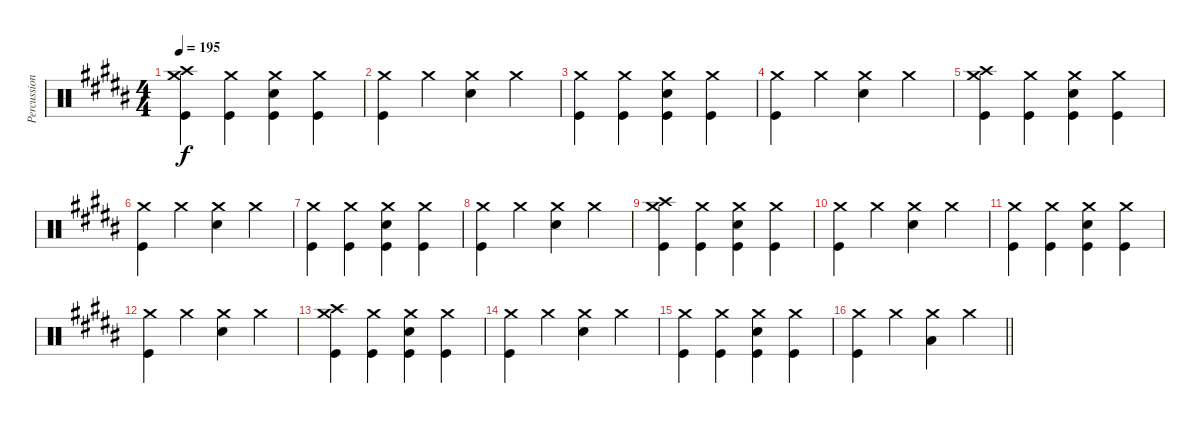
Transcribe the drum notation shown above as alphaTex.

\track ("Percussion" "Percussion") {instrument percussion}
\staff {score}
\articulation defaults
\ts (4 4)
\tempo 195
\clef neutral
\ks b
("Crash high (hit)" "Crash medium (hit)" "Kick (hit)").4{dy f} ("Crash medium (hit)" "Kick (hit)").4 ("Crash medium (hit)" "Electric Snare (hit)" "Kick (hit)").4 ("Crash medium (hit)" "Kick (hit)").4 |
("Crash medium (hit)" "Kick (hit)").4 "Crash medium (hit)".4 ("Crash medium (hit)" "Electric Snare (hit)").4 "Crash medium (hit)".4 |
("Crash medium (hit)" "Kick (hit)").4 ("Crash medium (hit)" "Kick (hit)").4 ("Crash medium (hit)" "Electric Snare (hit)" "Kick (hit)").4 ("Crash medium (hit)" "Kick (hit)").4 |
("Crash medium (hit)" "Kick (hit)").4 "Crash medium (hit)".4 ("Crash medium (hit)" "Electric Snare (hit)").4 "Crash medium (hit)".4 |
("Crash high (hit)" "Crash medium (hit)" "Kick (hit)").4 ("Crash medium (hit)" "Kick (hit)").4 ("Crash medium (hit)" "Electric Snare (hit)" "Kick (hit)").4 ("Crash medium (hit)" "Kick (hit)").4 |
("Crash medium (hit)" "Kick (hit)").4 "Crash medium (hit)".4 ("Crash medium (hit)" "Electric Snare (hit)").4 "Crash medium (hit)".4 |
("Crash medium (hit)" "Kick (hit)").4 ("Crash medium (hit)" "Kick (hit)").4 ("Crash medium (hit)" "Electric Snare (hit)" "Kick (hit)").4 ("Crash medium (hit)" "Kick (hit)").4 |
("Crash medium (hit)" "Kick (hit)").4 "Crash medium (hit)".4 ("Crash medium (hit)" "Electric Snare (hit)").4 "Crash medium (hit)".4 |
("Crash high (hit)" "Crash medium (hit)" "Kick (hit)").4 ("Crash medium (hit)" "Kick (hit)").4 ("Crash medium (hit)" "Electric Snare (hit)" "Kick (hit)").4 ("Crash medium (hit)" "Kick (hit)").4 |
("Crash medium (hit)" "Kick (hit)").4 "Crash medium (hit)".4 ("Crash medium (hit)" "Electric Snare (hit)").4 "Crash medium (hit)".4 |
("Crash medium (hit)" "Kick (hit)").4 ("Crash medium (hit)" "Kick (hit)").4 ("Crash medium (hit)" "Electric Snare (hit)" "Kick (hit)").4 ("Crash medium (hit)" "Kick (hit)").4 |
("Crash medium (hit)" "Kick (hit)").4 "Crash medium (hit)".4 ("Crash medium (hit)" "Electric Snare (hit)").4 "Crash medium (hit)".4 |
("Crash high (hit)" "Crash medium (hit)" "Kick (hit)").4 ("Crash medium (hit)" "Kick (hit)").4 ("Crash medium (hit)" "Electric Snare (hit)" "Kick (hit)").4 ("Crash medium (hit)" "Kick (hit)").4 |
("Crash medium (hit)" "Kick (hit)").4 "Crash medium (hit)".4 ("Crash medium (hit)" "Electric Snare (hit)").4 "Crash medium (hit)".4 |
("Crash medium (hit)" "Kick (hit)").4 ("Crash medium (hit)" "Kick (hit)").4 ("Crash medium (hit)" "Electric Snare (hit)" "Kick (hit)").4 ("Crash medium (hit)" "Kick (hit)").4 |
\barLineRight lightlight
("Crash medium (hit)" "Kick (hit)").4 "Crash medium (hit)".4 ("Crash medium (hit)" "Low Floor Tom (hit)").4 "Crash medium (hit)".4
